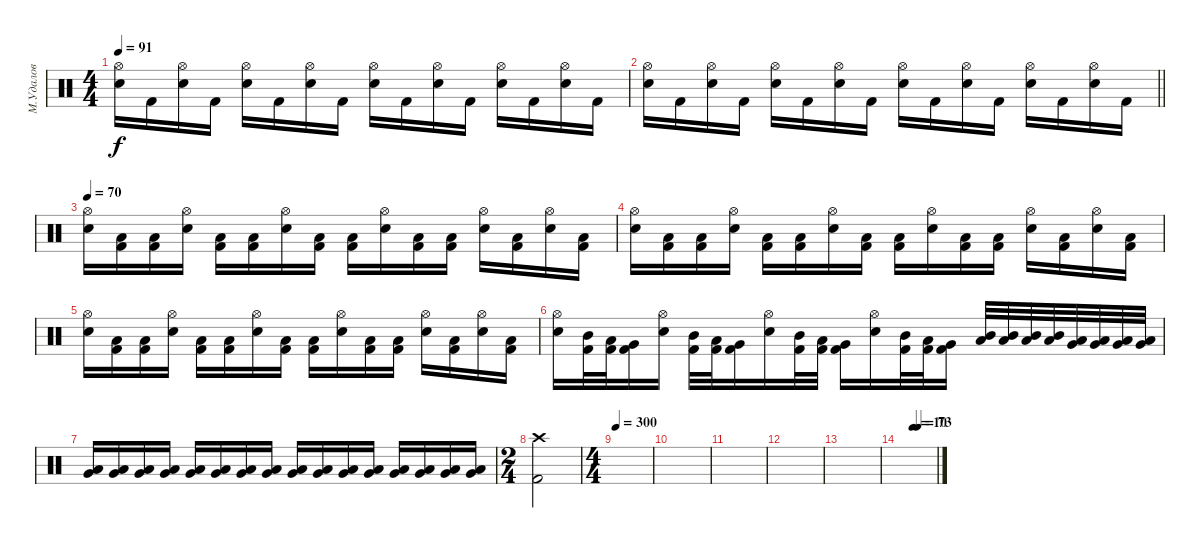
\track ("М.Удалов" "М.Удалов") {instrument percussion}
\staff {score}
\articulation defaults
\ts (4 4)
\tempo 91
\clef neutral
\ks c
("Electric Snare (hit)" "Hi-Hat (open)").16{dy f} "Kick (hit) 2".16 ("Electric Snare (hit)" "Hi-Hat (open)").16 "Kick (hit) 2".16 ("Electric Snare (hit)" "Hi-Hat (open)").16 "Kick (hit) 2".16 ("Electric Snare (hit)" "Hi-Hat (open)").16 "Kick (hit) 2".16 ("Electric Snare (hit)" "Hi-Hat (open)").16 "Kick (hit) 2".16 ("Electric Snare (hit)" "Hi-Hat (open)").16 "Kick (hit) 2".16 ("Electric Snare (hit)" "Hi-Hat (open)").16 "Kick (hit) 2".16 ("Electric Snare (hit)" "Hi-Hat (open)").16 "Kick (hit) 2".16 |
\barLineRight lightlight
("Electric Snare (hit)" "Hi-Hat (open)").16 "Kick (hit) 2".16 ("Electric Snare (hit)" "Hi-Hat (open)").16 "Kick (hit) 2".16 ("Electric Snare (hit)" "Hi-Hat (open)").16 "Kick (hit) 2".16 ("Electric Snare (hit)" "Hi-Hat (open)").16 "Kick (hit) 2".16 ("Electric Snare (hit)" "Hi-Hat (open)").16 "Kick (hit) 2".16 ("Electric Snare (hit)" "Hi-Hat (open)").16 "Kick (hit) 2".16 ("Electric Snare (hit)" "Hi-Hat (open)").16 "Kick (hit) 2".16 ("Electric Snare (hit)" "Hi-Hat (open)").16 "Kick (hit) 2".16 |
\tempo 70
("Electric Snare (hit)" "Hi-Hat (open)").16 ("Kick (hit) 2" "Low Tom (hit)").16 ("Kick (hit) 2" "Low Tom (hit)").16 ("Electric Snare (hit)" "Hi-Hat (open)").16 ("Kick (hit) 2" "Low Tom (hit)").16 ("Kick (hit) 2" "Low Tom (hit)").16 ("Electric Snare (hit)" "Hi-Hat (open)").16 ("Kick (hit) 2" "Low Tom (hit)").16 ("Kick (hit) 2" "Low Tom (hit)").16 ("Electric Snare (hit)" "Hi-Hat (open)").16 ("Kick (hit) 2" "Low Tom (hit)").16 ("Kick (hit) 2" "Low Tom (hit)").16 ("Electric Snare (hit)" "Hi-Hat (open)").16 ("Kick (hit) 2" "Low Tom (hit)").16 ("Electric Snare (hit)" "Hi-Hat (open)").16 ("Kick (hit) 2" "Low Tom (hit)").16 |
("Electric Snare (hit)" "Hi-Hat (open)").16 ("Kick (hit) 2" "Low Tom (hit)").16 ("Kick (hit) 2" "Low Tom (hit)").16 ("Electric Snare (hit)" "Hi-Hat (open)").16 ("Kick (hit) 2" "Low Tom (hit)").16 ("Kick (hit) 2" "Low Tom (hit)").16 ("Electric Snare (hit)" "Hi-Hat (open)").16 ("Kick (hit) 2" "Low Tom (hit)").16 ("Kick (hit) 2" "Low Tom (hit)").16 ("Electric Snare (hit)" "Hi-Hat (open)").16 ("Kick (hit) 2" "Low Tom (hit)").16 ("Kick (hit) 2" "Low Tom (hit)").16 ("Electric Snare (hit)" "Hi-Hat (open)").16 ("Kick (hit) 2" "Low Tom (hit)").16 ("Electric Snare (hit)" "Hi-Hat (open)").16 ("Kick (hit) 2" "Low Tom (hit)").16 |
("Electric Snare (hit)" "Hi-Hat (open)").16 ("Kick (hit) 2" "Low Tom (hit)").16 ("Kick (hit) 2" "Low Tom (hit)").16 ("Electric Snare (hit)" "Hi-Hat (open)").16 ("Kick (hit) 2" "Low Tom (hit)").16 ("Kick (hit) 2" "Low Tom (hit)").16 ("Electric Snare (hit)" "Hi-Hat (open)").16 ("Kick (hit) 2" "Low Tom (hit)").16 ("Kick (hit) 2" "Low Tom (hit)").16 ("Electric Snare (hit)" "Hi-Hat (open)").16 ("Kick (hit) 2" "Low Tom (hit)").16 ("Kick (hit) 2" "Low Tom (hit)").16 ("Electric Snare (hit)" "Hi-Hat (open)").16 ("Kick (hit) 2" "Low Tom (hit)").16 ("Electric Snare (hit)" "Hi-Hat (open)").16 ("Kick (hit) 2" "Low Tom (hit)").16 |
("Electric Snare (hit)" "Hi-Hat (open)").16 ("Kick (hit) 2" "Mid Tom (hit)").32 ("Kick (hit) 2" "Low Tom (hit)").32 ("Kick (hit) 2" "Very Low Tom (hit)").16 ("Electric Snare (hit)" "Hi-Hat (open)").16 ("Kick (hit) 2" "Mid Tom (hit)").32 ("Kick (hit) 2" "Low Tom (hit)").32 ("Kick (hit) 2" "Very Low Tom (hit)").16 ("Electric Snare (hit)" "Hi-Hat (open)").16 ("Kick (hit) 2" "Mid Tom (hit)").32 ("Kick (hit) 2" "Low Tom (hit)").32 ("Kick (hit) 2" "Very Low Tom (hit)").16 ("Electric Snare (hit)" "Hi-Hat (open)").16 ("Kick (hit) 2" "Mid Tom (hit)").32 ("Kick (hit) 2" "Low Tom (hit)").32 ("Kick (hit) 2" "Very Low Tom (hit)").16 ("Low Tom (hit)" "Mid Tom (hit)").32 ("Low Tom (hit)" "Mid Tom (hit)").32 ("Low Tom (hit)" "Mid Tom (hit)").32 ("Low Tom (hit)" "Mid Tom (hit)").32 ("Very Low Tom (hit)" "Low Tom (hit)").32 ("Very Low Tom (hit)" "Low Tom (hit)").32 ("Very Low Tom (hit)" "Low Tom (hit)").32 ("Very Low Tom (hit)" "Low Tom (hit)").32 |
("Very Low Tom (hit)" "Low Tom (hit)").16 ("Low Floor Tom (hit)" "Very Low Tom (hit)").16 ("Low Floor Tom (hit)" "Very Low Tom (hit)").16 ("Very Low Tom (hit)" "Low Tom (hit)").16 ("Low Floor Tom (hit)" "Very Low Tom (hit)").16 ("Low Floor Tom (hit)" "Very Low Tom (hit)").16 ("Very Low Tom (hit)" "Low Tom (hit)").16 ("Low Floor Tom (hit)" "Very Low Tom (hit)").16 ("Low Floor Tom (hit)" "Very Low Tom (hit)").16 ("Very Low Tom (hit)" "Low Tom (hit)").16 ("Low Floor Tom (hit)" "Very Low Tom (hit)").16 ("Low Floor Tom (hit)" "Very Low Tom (hit)").16 ("Very Low Tom (hit)" "Low Tom (hit)").16 ("Low Floor Tom (hit)" "Very Low Tom (hit)").16 ("Very Low Tom (hit)" "Low Tom (hit)").16 ("Low Floor Tom (hit)" "Very Low Tom (hit)").16 |
\ts (2 4)
("Kick (hit) 2" "Crash high (hit)").2 |
\ts (4 4)
\tempo 300
|
|
|
|
|
\tempo (10 0.375)
\tempo (73 0.5)
